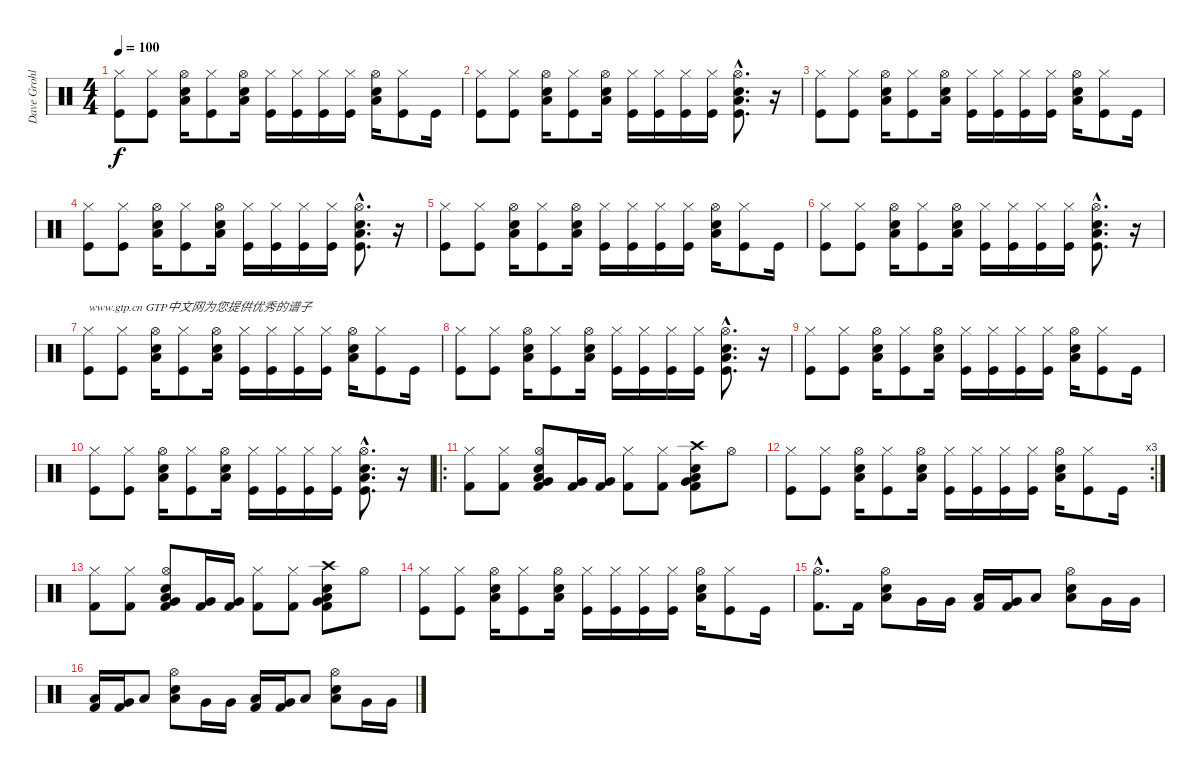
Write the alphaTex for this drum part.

\track ("Dave Grohl" "Dave Grohl") {instrument percussion}
\staff {score}
\articulation defaults
\ts (4 4)
\tempo 100
\clef neutral
\ks c
("Kick (hit)" "Hi-Hat (closed)").8{dy f} ("Kick (hit)" "Hi-Hat (closed)").8 ("Snare (hit) 2" "Low Tom (hit)" "Hi-Hat (open)").16 ("Kick (hit)" "Hi-Hat (closed)").8 ("Snare (hit) 2" "Low Tom (hit)" "Hi-Hat (open)").16 ("Kick (hit)" "Hi-Hat (closed)").16 ("Kick (hit)" "Hi-Hat (closed)").16 ("Kick (hit)" "Hi-Hat (closed)").16 ("Kick (hit)" "Hi-Hat (closed)").16 ("Snare (hit) 2" "Low Tom (hit)" "Hi-Hat (open)").16 ("Kick (hit)" "Hi-Hat (closed)").8 "Kick (hit)".16 |
("Kick (hit)" "Hi-Hat (closed)").8 ("Kick (hit)" "Hi-Hat (closed)").8 ("Snare (hit) 2" "Low Tom (hit)" "Hi-Hat (open)").16 ("Kick (hit)" "Hi-Hat (closed)").8 ("Snare (hit) 2" "Low Tom (hit)" "Hi-Hat (open)").16 ("Kick (hit)" "Hi-Hat (closed)").16 ("Kick (hit)" "Hi-Hat (closed)").16 ("Kick (hit)" "Hi-Hat (closed)").16 ("Kick (hit)" "Hi-Hat (closed)").16 ("Snare (hit) 2"{hac} "Low Tom (hit)"{hac} "Hi-Hat (open)"{hac} "Kick (hit)"{hac}).8{d} r.16 |
("Kick (hit)" "Hi-Hat (closed)").8 ("Kick (hit)" "Hi-Hat (closed)").8 ("Snare (hit) 2" "Low Tom (hit)" "Hi-Hat (open)").16 ("Kick (hit)" "Hi-Hat (closed)").8 ("Snare (hit) 2" "Low Tom (hit)" "Hi-Hat (open)").16 ("Kick (hit)" "Hi-Hat (closed)").16 ("Kick (hit)" "Hi-Hat (closed)").16 ("Kick (hit)" "Hi-Hat (closed)").16 ("Kick (hit)" "Hi-Hat (closed)").16 ("Snare (hit) 2" "Low Tom (hit)" "Hi-Hat (open)").16 ("Kick (hit)" "Hi-Hat (closed)").8 "Kick (hit)".16 |
("Kick (hit)" "Hi-Hat (closed)").8 ("Kick (hit)" "Hi-Hat (closed)").8 ("Snare (hit) 2" "Low Tom (hit)" "Hi-Hat (open)").16 ("Kick (hit)" "Hi-Hat (closed)").8 ("Snare (hit) 2" "Low Tom (hit)" "Hi-Hat (open)").16 ("Kick (hit)" "Hi-Hat (closed)").16 ("Kick (hit)" "Hi-Hat (closed)").16 ("Kick (hit)" "Hi-Hat (closed)").16 ("Kick (hit)" "Hi-Hat (closed)").16 ("Snare (hit) 2"{hac} "Low Tom (hit)"{hac} "Hi-Hat (open)"{hac} "Kick (hit)"{hac}).8{d} r.16 |
("Kick (hit)" "Hi-Hat (closed)").8 ("Kick (hit)" "Hi-Hat (closed)").8 ("Snare (hit) 2" "Low Tom (hit)" "Hi-Hat (open)").16 ("Kick (hit)" "Hi-Hat (closed)").8 ("Snare (hit) 2" "Low Tom (hit)" "Hi-Hat (open)").16 ("Kick (hit)" "Hi-Hat (closed)").16 ("Kick (hit)" "Hi-Hat (closed)").16 ("Kick (hit)" "Hi-Hat (closed)").16 ("Kick (hit)" "Hi-Hat (closed)").16 ("Snare (hit) 2" "Low Tom (hit)" "Hi-Hat (open)").16 ("Kick (hit)" "Hi-Hat (closed)").8 "Kick (hit)".16 |
("Kick (hit)" "Hi-Hat (closed)").8 ("Kick (hit)" "Hi-Hat (closed)").8 ("Snare (hit) 2" "Low Tom (hit)" "Hi-Hat (open)").16 ("Kick (hit)" "Hi-Hat (closed)").8 ("Snare (hit) 2" "Low Tom (hit)" "Hi-Hat (open)").16 ("Kick (hit)" "Hi-Hat (closed)").16 ("Kick (hit)" "Hi-Hat (closed)").16 ("Kick (hit)" "Hi-Hat (closed)").16 ("Kick (hit)" "Hi-Hat (closed)").16 ("Snare (hit) 2"{hac} "Low Tom (hit)"{hac} "Hi-Hat (open)"{hac} "Kick (hit)"{hac}).8{d} r.16 |
("Kick (hit)" "Hi-Hat (closed)").8{txt "www.gtp.cn GTP中文网为您提供优秀的谱子"} ("Kick (hit)" "Hi-Hat (closed)").8 ("Snare (hit) 2" "Low Tom (hit)" "Hi-Hat (open)").16 ("Kick (hit)" "Hi-Hat (closed)").8 ("Snare (hit) 2" "Low Tom (hit)" "Hi-Hat (open)").16 ("Kick (hit)" "Hi-Hat (closed)").16 ("Kick (hit)" "Hi-Hat (closed)").16 ("Kick (hit)" "Hi-Hat (closed)").16 ("Kick (hit)" "Hi-Hat (closed)").16 ("Snare (hit) 2" "Low Tom (hit)" "Hi-Hat (open)").16 ("Kick (hit)" "Hi-Hat (closed)").8 "Kick (hit)".16 |
("Kick (hit)" "Hi-Hat (closed)").8 ("Kick (hit)" "Hi-Hat (closed)").8 ("Snare (hit) 2" "Low Tom (hit)" "Hi-Hat (open)").16 ("Kick (hit)" "Hi-Hat (closed)").8 ("Snare (hit) 2" "Low Tom (hit)" "Hi-Hat (open)").16 ("Kick (hit)" "Hi-Hat (closed)").16 ("Kick (hit)" "Hi-Hat (closed)").16 ("Kick (hit)" "Hi-Hat (closed)").16 ("Kick (hit)" "Hi-Hat (closed)").16 ("Snare (hit) 2"{hac} "Low Tom (hit)"{hac} "Hi-Hat (open)"{hac} "Kick (hit)"{hac}).8{d} r.16 |
("Kick (hit)" "Hi-Hat (closed)").8 ("Kick (hit)" "Hi-Hat (closed)").8 ("Snare (hit) 2" "Low Tom (hit)" "Hi-Hat (open)").16 ("Kick (hit)" "Hi-Hat (closed)").8 ("Snare (hit) 2" "Low Tom (hit)" "Hi-Hat (open)").16 ("Kick (hit)" "Hi-Hat (closed)").16 ("Kick (hit)" "Hi-Hat (closed)").16 ("Kick (hit)" "Hi-Hat (closed)").16 ("Kick (hit)" "Hi-Hat (closed)").16 ("Snare (hit) 2" "Low Tom (hit)" "Hi-Hat (open)").16 ("Kick (hit)" "Hi-Hat (closed)").8 "Kick (hit)".16 |
("Kick (hit)" "Hi-Hat (closed)").8 ("Kick (hit)" "Hi-Hat (closed)").8 ("Snare (hit) 2" "Low Tom (hit)" "Hi-Hat (open)").16 ("Kick (hit)" "Hi-Hat (closed)").8 ("Snare (hit) 2" "Low Tom (hit)" "Hi-Hat (open)").16 ("Kick (hit)" "Hi-Hat (closed)").16 ("Kick (hit)" "Hi-Hat (closed)").16 ("Kick (hit)" "Hi-Hat (closed)").16 ("Kick (hit)" "Hi-Hat (closed)").16 ("Snare (hit) 2"{hac} "Low Tom (hit)"{hac} "Hi-Hat (open)"{hac} "Kick (hit)"{hac}).8{d} r.16 |
\ro
("Hi-Hat (closed)" "Kick (hit) 2").8 ("Hi-Hat (closed)" "Kick (hit) 2").8 ("Snare (hit) 2" "Low Tom (hit)" "Hi-Hat (open)" "Very Low Tom (hit)" "Kick (hit) 2").8 ("Very Low Tom (hit)" "Kick (hit) 2").16 ("Very Low Tom (hit)" "Kick (hit) 2").16 ("Hi-Hat (closed)" "Kick (hit) 2").8 ("Hi-Hat (closed)" "Kick (hit) 2").8 ("Snare (hit) 2" "Low Tom (hit)" "Crash high (hit)" "Very Low Tom (hit)" "Kick (hit) 2").8 "Hi-Hat (open)".8 |
\rc 3
("Kick (hit)" "Hi-Hat (closed)").8 ("Kick (hit)" "Hi-Hat (closed)").8 ("Snare (hit) 2" "Low Tom (hit)" "Hi-Hat (open)").16 ("Kick (hit)" "Hi-Hat (closed)").8 ("Snare (hit) 2" "Low Tom (hit)" "Hi-Hat (open)").16 ("Kick (hit)" "Hi-Hat (closed)").16 ("Kick (hit)" "Hi-Hat (closed)").16 ("Kick (hit)" "Hi-Hat (closed)").16 ("Kick (hit)" "Hi-Hat (closed)").16 ("Snare (hit) 2" "Low Tom (hit)" "Hi-Hat (open)").16 ("Kick (hit)" "Hi-Hat (closed)").8 "Kick (hit)".16 |
("Hi-Hat (closed)" "Kick (hit) 2").8 ("Hi-Hat (closed)" "Kick (hit) 2").8 ("Snare (hit) 2" "Low Tom (hit)" "Hi-Hat (open)" "Very Low Tom (hit)" "Kick (hit) 2").8 ("Very Low Tom (hit)" "Kick (hit) 2").16 ("Very Low Tom (hit)" "Kick (hit) 2").16 ("Hi-Hat (closed)" "Kick (hit) 2").8 ("Hi-Hat (closed)" "Kick (hit) 2").8 ("Snare (hit) 2" "Low Tom (hit)" "Crash high (hit)" "Very Low Tom (hit)" "Kick (hit) 2").8 "Hi-Hat (open)".8 |
("Kick (hit)" "Hi-Hat (closed)").8 ("Kick (hit)" "Hi-Hat (closed)").8 ("Snare (hit) 2" "Low Tom (hit)" "Hi-Hat (open)").16 ("Kick (hit)" "Hi-Hat (closed)").8 ("Snare (hit) 2" "Low Tom (hit)" "Hi-Hat (open)").16 ("Kick (hit)" "Hi-Hat (closed)").16 ("Kick (hit)" "Hi-Hat (closed)").16 ("Kick (hit)" "Hi-Hat (closed)").16 ("Kick (hit)" "Hi-Hat (closed)").16 ("Snare (hit) 2" "Low Tom (hit)" "Hi-Hat (open)").16 ("Kick (hit)" "Hi-Hat (closed)").8 "Kick (hit)".16 |
("Hi-Hat (open)"{hac} "Kick (hit) 2"{hac}).8{d} "Kick (hit) 2".16 ("Snare (hit) 2" "Low Tom (hit)" "Hi-Hat (open)").8 "Very Low Tom (hit)".16 "Very Low Tom (hit)".16 ("Low Tom (hit)" "Kick (hit) 2").16 ("Very Low Tom (hit)" "Kick (hit) 2").16 "Low Floor Tom (hit)".8 ("Snare (hit) 2" "Low Tom (hit)" "Hi-Hat (open)").8 "Very Low Tom (hit)".16 "Very Low Tom (hit)".16 |
("Low Tom (hit)" "Kick (hit) 2").16 ("Very Low Tom (hit)" "Kick (hit) 2").16 "Low Floor Tom (hit)".8 ("Snare (hit) 2" "Low Tom (hit)" "Hi-Hat (open)").8 "Very Low Tom (hit)".16 "Very Low Tom (hit)".16 ("Low Tom (hit)" "Kick (hit) 2").16 ("Very Low Tom (hit)" "Kick (hit) 2").16 "Low Floor Tom (hit)".8 ("Snare (hit) 2" "Low Tom (hit)" "Hi-Hat (open)").8 "Very Low Tom (hit)".16 "Very Low Tom (hit)".16
